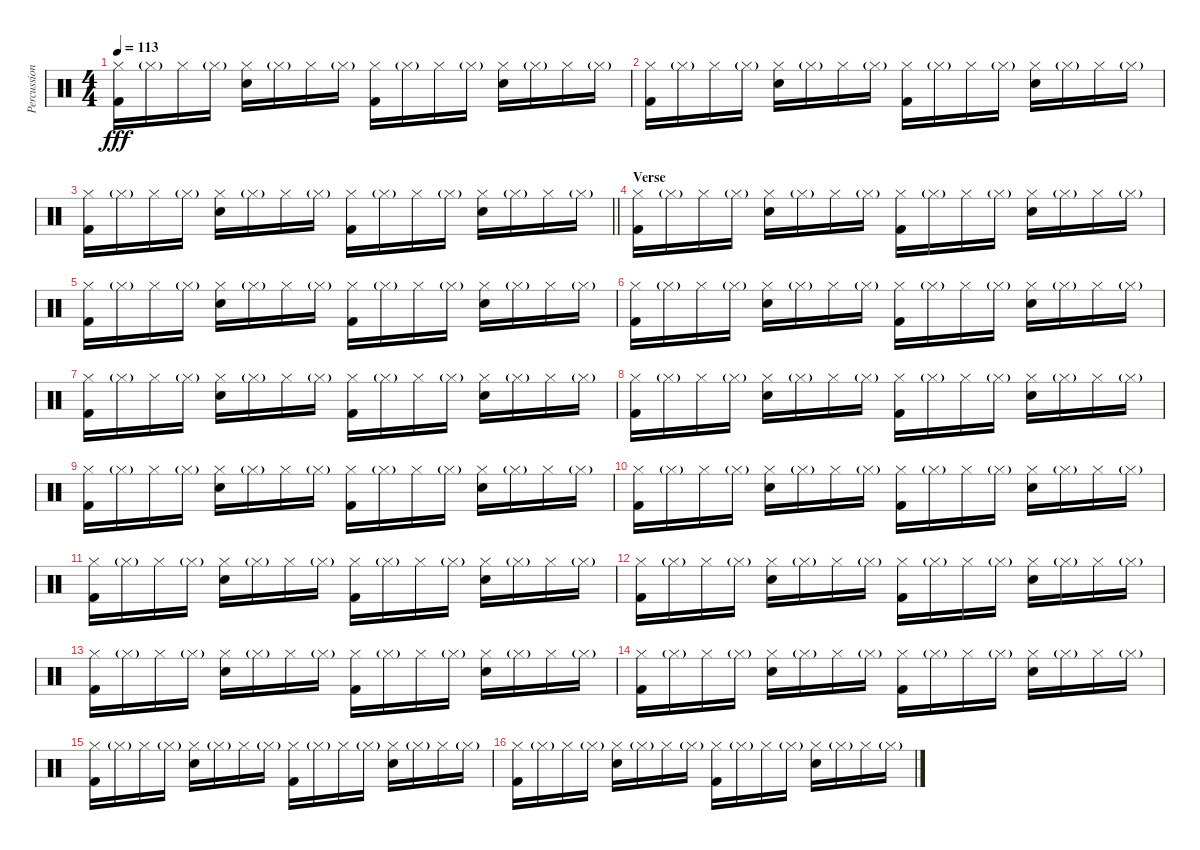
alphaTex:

\track ("Percussion" "Percussion") {instrument percussion}
\staff {score}
\articulation defaults
\ts (4 4)
\tempo 113
\clef neutral
\ks c
("Hi-Hat (closed)" "Kick (hit) 2").16{dy fff} "Hi-Hat (closed)"{g}.16 "Hi-Hat (closed)".16 "Hi-Hat (closed)"{g}.16 ("Hi-Hat (closed)" "Electric Snare (hit)").16 "Hi-Hat (closed)"{g}.16 "Hi-Hat (closed)".16 "Hi-Hat (closed)"{g}.16 ("Hi-Hat (closed)" "Kick (hit) 2").16 "Hi-Hat (closed)"{g}.16 "Hi-Hat (closed)".16 "Hi-Hat (closed)"{g}.16 ("Hi-Hat (closed)" "Electric Snare (hit)").16 "Hi-Hat (closed)"{g}.16 "Hi-Hat (closed)".16 "Hi-Hat (closed)"{g}.16 |
("Hi-Hat (closed)" "Kick (hit) 2").16 "Hi-Hat (closed)"{g}.16 "Hi-Hat (closed)".16 "Hi-Hat (closed)"{g}.16 ("Hi-Hat (closed)" "Electric Snare (hit)").16 "Hi-Hat (closed)"{g}.16 "Hi-Hat (closed)".16 "Hi-Hat (closed)"{g}.16 ("Hi-Hat (closed)" "Kick (hit) 2").16 "Hi-Hat (closed)"{g}.16 "Hi-Hat (closed)".16 "Hi-Hat (closed)"{g}.16 ("Hi-Hat (closed)" "Electric Snare (hit)").16 "Hi-Hat (closed)"{g}.16 "Hi-Hat (closed)".16 "Hi-Hat (closed)"{g}.16 |
\barLineRight lightlight
("Hi-Hat (closed)" "Kick (hit) 2").16 "Hi-Hat (closed)"{g}.16 "Hi-Hat (closed)".16 "Hi-Hat (closed)"{g}.16 ("Hi-Hat (closed)" "Electric Snare (hit)").16 "Hi-Hat (closed)"{g}.16 "Hi-Hat (closed)".16 "Hi-Hat (closed)"{g}.16 ("Hi-Hat (closed)" "Kick (hit) 2").16 "Hi-Hat (closed)"{g}.16 "Hi-Hat (closed)".16 "Hi-Hat (closed)"{g}.16 ("Hi-Hat (closed)" "Electric Snare (hit)").16 "Hi-Hat (closed)"{g}.16 "Hi-Hat (closed)".16 "Hi-Hat (closed)"{g}.16 |
\section ("" "Verse")
("Hi-Hat (closed)" "Kick (hit) 2").16 "Hi-Hat (closed)"{g}.16 "Hi-Hat (closed)".16 "Hi-Hat (closed)"{g}.16 ("Hi-Hat (closed)" "Electric Snare (hit)").16 "Hi-Hat (closed)"{g}.16 "Hi-Hat (closed)".16 "Hi-Hat (closed)"{g}.16 ("Hi-Hat (closed)" "Kick (hit) 2").16 "Hi-Hat (closed)"{g}.16 "Hi-Hat (closed)".16 "Hi-Hat (closed)"{g}.16 ("Hi-Hat (closed)" "Electric Snare (hit)").16 "Hi-Hat (closed)"{g}.16 "Hi-Hat (closed)".16 "Hi-Hat (closed)"{g}.16 |
("Hi-Hat (closed)" "Kick (hit) 2").16 "Hi-Hat (closed)"{g}.16 "Hi-Hat (closed)".16 "Hi-Hat (closed)"{g}.16 ("Hi-Hat (closed)" "Electric Snare (hit)").16 "Hi-Hat (closed)"{g}.16 "Hi-Hat (closed)".16 "Hi-Hat (closed)"{g}.16 ("Hi-Hat (closed)" "Kick (hit) 2").16 "Hi-Hat (closed)"{g}.16 "Hi-Hat (closed)".16 "Hi-Hat (closed)"{g}.16 ("Hi-Hat (closed)" "Electric Snare (hit)").16 "Hi-Hat (closed)"{g}.16 "Hi-Hat (closed)".16 "Hi-Hat (closed)"{g}.16 |
("Hi-Hat (closed)" "Kick (hit) 2").16 "Hi-Hat (closed)"{g}.16 "Hi-Hat (closed)".16 "Hi-Hat (closed)"{g}.16 ("Hi-Hat (closed)" "Electric Snare (hit)").16 "Hi-Hat (closed)"{g}.16 "Hi-Hat (closed)".16 "Hi-Hat (closed)"{g}.16 ("Hi-Hat (closed)" "Kick (hit) 2").16 "Hi-Hat (closed)"{g}.16 "Hi-Hat (closed)".16 "Hi-Hat (closed)"{g}.16 ("Hi-Hat (closed)" "Electric Snare (hit)").16 "Hi-Hat (closed)"{g}.16 "Hi-Hat (closed)".16 "Hi-Hat (closed)"{g}.16 |
("Hi-Hat (closed)" "Kick (hit) 2").16 "Hi-Hat (closed)"{g}.16 "Hi-Hat (closed)".16 "Hi-Hat (closed)"{g}.16 ("Hi-Hat (closed)" "Electric Snare (hit)").16 "Hi-Hat (closed)"{g}.16 "Hi-Hat (closed)".16 "Hi-Hat (closed)"{g}.16 ("Hi-Hat (closed)" "Kick (hit) 2").16 "Hi-Hat (closed)"{g}.16 "Hi-Hat (closed)".16 "Hi-Hat (closed)"{g}.16 ("Hi-Hat (closed)" "Electric Snare (hit)").16 "Hi-Hat (closed)"{g}.16 "Hi-Hat (closed)".16 "Hi-Hat (closed)"{g}.16 |
("Hi-Hat (closed)" "Kick (hit) 2").16 "Hi-Hat (closed)"{g}.16 "Hi-Hat (closed)".16 "Hi-Hat (closed)"{g}.16 ("Hi-Hat (closed)" "Electric Snare (hit)").16 "Hi-Hat (closed)"{g}.16 "Hi-Hat (closed)".16 "Hi-Hat (closed)"{g}.16 ("Hi-Hat (closed)" "Kick (hit) 2").16 "Hi-Hat (closed)"{g}.16 "Hi-Hat (closed)".16 "Hi-Hat (closed)"{g}.16 ("Hi-Hat (closed)" "Electric Snare (hit)").16 "Hi-Hat (closed)"{g}.16 "Hi-Hat (closed)".16 "Hi-Hat (closed)"{g}.16 |
("Hi-Hat (closed)" "Kick (hit) 2").16 "Hi-Hat (closed)"{g}.16 "Hi-Hat (closed)".16 "Hi-Hat (closed)"{g}.16 ("Hi-Hat (closed)" "Electric Snare (hit)").16 "Hi-Hat (closed)"{g}.16 "Hi-Hat (closed)".16 "Hi-Hat (closed)"{g}.16 ("Hi-Hat (closed)" "Kick (hit) 2").16 "Hi-Hat (closed)"{g}.16 "Hi-Hat (closed)".16 "Hi-Hat (closed)"{g}.16 ("Hi-Hat (closed)" "Electric Snare (hit)").16 "Hi-Hat (closed)"{g}.16 "Hi-Hat (closed)".16 "Hi-Hat (closed)"{g}.16 |
("Hi-Hat (closed)" "Kick (hit) 2").16 "Hi-Hat (closed)"{g}.16 "Hi-Hat (closed)".16 "Hi-Hat (closed)"{g}.16 ("Hi-Hat (closed)" "Electric Snare (hit)").16 "Hi-Hat (closed)"{g}.16 "Hi-Hat (closed)".16 "Hi-Hat (closed)"{g}.16 ("Hi-Hat (closed)" "Kick (hit) 2").16 "Hi-Hat (closed)"{g}.16 "Hi-Hat (closed)".16 "Hi-Hat (closed)"{g}.16 ("Hi-Hat (closed)" "Electric Snare (hit)").16 "Hi-Hat (closed)"{g}.16 "Hi-Hat (closed)".16 "Hi-Hat (closed)"{g}.16 |
("Hi-Hat (closed)" "Kick (hit) 2").16 "Hi-Hat (closed)"{g}.16 "Hi-Hat (closed)".16 "Hi-Hat (closed)"{g}.16 ("Hi-Hat (closed)" "Electric Snare (hit)").16 "Hi-Hat (closed)"{g}.16 "Hi-Hat (closed)".16 "Hi-Hat (closed)"{g}.16 ("Hi-Hat (closed)" "Kick (hit) 2").16 "Hi-Hat (closed)"{g}.16 "Hi-Hat (closed)".16 "Hi-Hat (closed)"{g}.16 ("Hi-Hat (closed)" "Electric Snare (hit)").16 "Hi-Hat (closed)"{g}.16 "Hi-Hat (closed)".16 "Hi-Hat (closed)"{g}.16 |
("Hi-Hat (closed)" "Kick (hit) 2").16 "Hi-Hat (closed)"{g}.16 "Hi-Hat (closed)".16 "Hi-Hat (closed)"{g}.16 ("Hi-Hat (closed)" "Electric Snare (hit)").16 "Hi-Hat (closed)"{g}.16 "Hi-Hat (closed)".16 "Hi-Hat (closed)"{g}.16 ("Hi-Hat (closed)" "Kick (hit) 2").16 "Hi-Hat (closed)"{g}.16 "Hi-Hat (closed)".16 "Hi-Hat (closed)"{g}.16 ("Hi-Hat (closed)" "Electric Snare (hit)").16 "Hi-Hat (closed)"{g}.16 "Hi-Hat (closed)".16 "Hi-Hat (closed)"{g}.16 |
("Hi-Hat (closed)" "Kick (hit) 2").16 "Hi-Hat (closed)"{g}.16 "Hi-Hat (closed)".16 "Hi-Hat (closed)"{g}.16 ("Hi-Hat (closed)" "Electric Snare (hit)").16 "Hi-Hat (closed)"{g}.16 "Hi-Hat (closed)".16 "Hi-Hat (closed)"{g}.16 ("Hi-Hat (closed)" "Kick (hit) 2").16 "Hi-Hat (closed)"{g}.16 "Hi-Hat (closed)".16 "Hi-Hat (closed)"{g}.16 ("Hi-Hat (closed)" "Electric Snare (hit)").16 "Hi-Hat (closed)"{g}.16 "Hi-Hat (closed)".16 "Hi-Hat (closed)"{g}.16 |
("Hi-Hat (closed)" "Kick (hit) 2").16 "Hi-Hat (closed)"{g}.16 "Hi-Hat (closed)".16 "Hi-Hat (closed)"{g}.16 ("Hi-Hat (closed)" "Electric Snare (hit)").16 "Hi-Hat (closed)"{g}.16 "Hi-Hat (closed)".16 "Hi-Hat (closed)"{g}.16 ("Hi-Hat (closed)" "Kick (hit) 2").16 "Hi-Hat (closed)"{g}.16 "Hi-Hat (closed)".16 "Hi-Hat (closed)"{g}.16 ("Hi-Hat (closed)" "Electric Snare (hit)").16 "Hi-Hat (closed)"{g}.16 "Hi-Hat (closed)".16 "Hi-Hat (closed)"{g}.16 |
("Hi-Hat (closed)" "Kick (hit) 2").16 "Hi-Hat (closed)"{g}.16 "Hi-Hat (closed)".16 "Hi-Hat (closed)"{g}.16 ("Hi-Hat (closed)" "Electric Snare (hit)").16 "Hi-Hat (closed)"{g}.16 "Hi-Hat (closed)".16 "Hi-Hat (closed)"{g}.16 ("Hi-Hat (closed)" "Kick (hit) 2").16 "Hi-Hat (closed)"{g}.16 "Hi-Hat (closed)".16 "Hi-Hat (closed)"{g}.16 ("Hi-Hat (closed)" "Electric Snare (hit)").16 "Hi-Hat (closed)"{g}.16 "Hi-Hat (closed)".16 "Hi-Hat (closed)"{g}.16 |
("Hi-Hat (closed)" "Kick (hit) 2").16 "Hi-Hat (closed)"{g}.16 "Hi-Hat (closed)".16 "Hi-Hat (closed)"{g}.16 ("Hi-Hat (closed)" "Electric Snare (hit)").16 "Hi-Hat (closed)"{g}.16 "Hi-Hat (closed)".16 "Hi-Hat (closed)"{g}.16 ("Hi-Hat (closed)" "Kick (hit) 2").16 "Hi-Hat (closed)"{g}.16 "Hi-Hat (closed)".16 "Hi-Hat (closed)"{g}.16 ("Hi-Hat (closed)" "Electric Snare (hit)").16 "Hi-Hat (closed)"{g}.16 "Hi-Hat (closed)".16 "Hi-Hat (closed)"{g}.16
